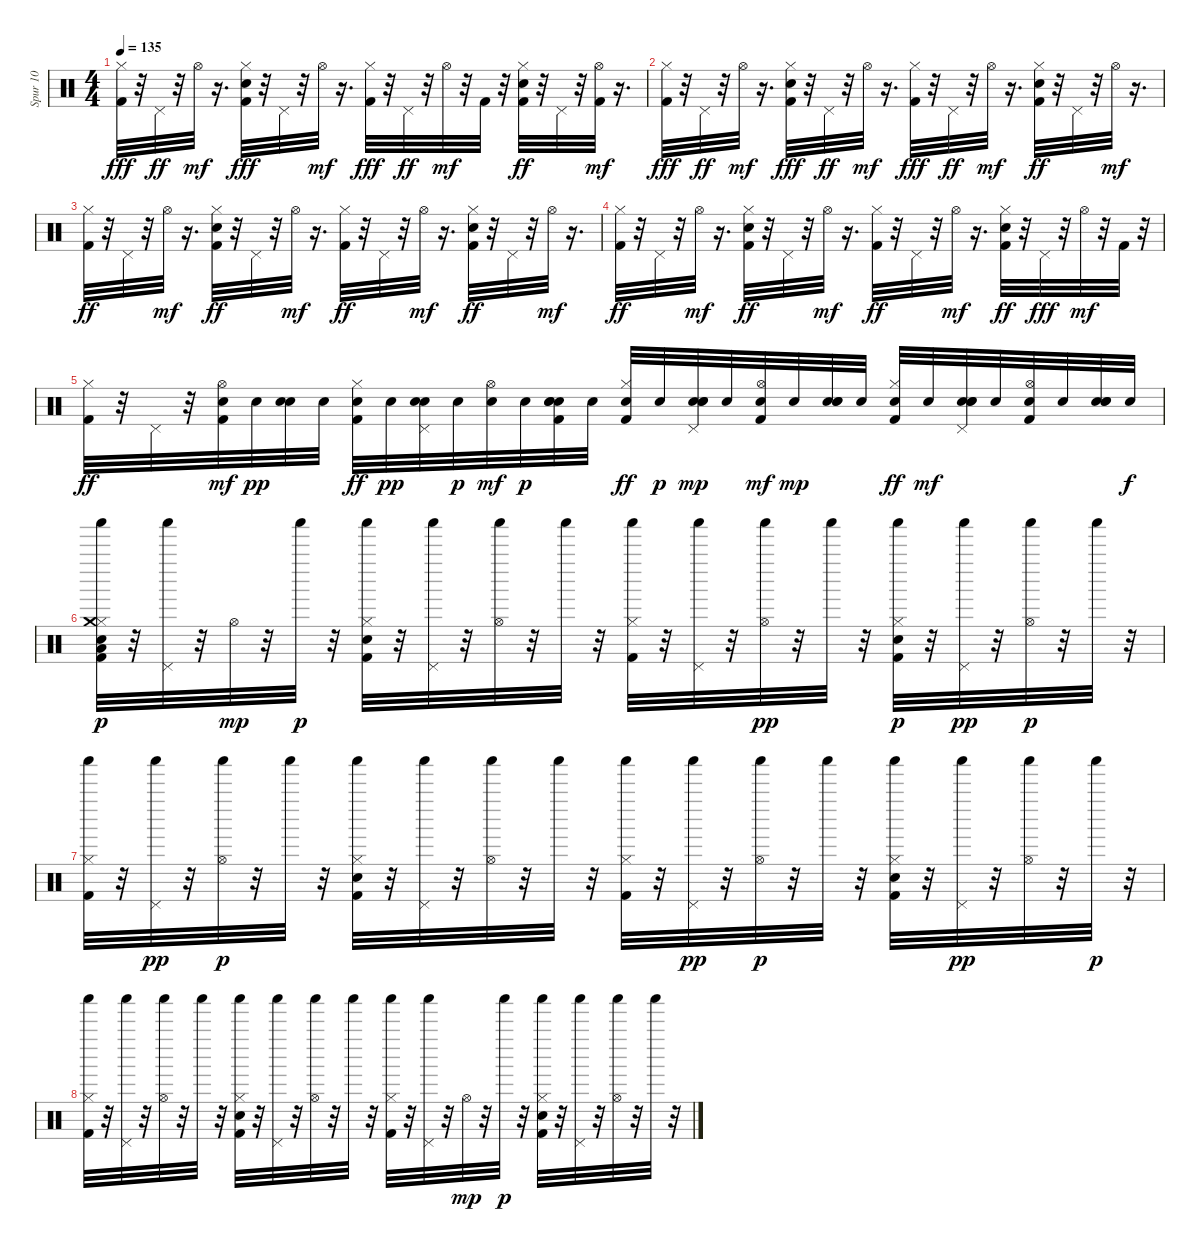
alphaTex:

\track ("Spur 10" "Spur 10") {instrument percussion}
\staff {score}
\articulation defaults
\ts (4 4)
\tempo 135
\clef neutral
\ks c
("Kick (hit) 2" "Hi-Hat (closed)").32{dy fff} r.32 "Pedal Hi-Hat (hit)".32{dy ff} r.32 "Hi-Hat (open)".32{dy mf} r.16{d} ("Kick (hit) 2" "Snare (hit) 2" "Hi-Hat (closed)").32{dy fff} r.32 "Pedal Hi-Hat (hit)".32 r.32 "Hi-Hat (open)".32{dy mf} r.16{d} ("Kick (hit) 2" "Hi-Hat (closed)").32{dy fff} r.32 "Pedal Hi-Hat (hit)".32{dy ff} r.32 "Hi-Hat (open)".32{dy mf} r.32 "Kick (hit) 2".32 r.32 ("Kick (hit) 2" "Snare (hit) 2" "Hi-Hat (closed)").32{dy ff} r.32 "Pedal Hi-Hat (hit)".32 r.32 ("Kick (hit) 2" "Hi-Hat (open)").32{dy mf} r.16{d} |
("Kick (hit) 2" "Hi-Hat (closed)").32{dy fff} r.32 "Pedal Hi-Hat (hit)".32{dy ff} r.32 "Hi-Hat (open)".32{dy mf} r.16{d} ("Kick (hit) 2" "Snare (hit) 2" "Hi-Hat (closed)").32{dy fff} r.32 "Pedal Hi-Hat (hit)".32{dy ff} r.32 "Hi-Hat (open)".32{dy mf} r.16{d} ("Kick (hit) 2" "Hi-Hat (closed)").32{dy fff} r.32 "Pedal Hi-Hat (hit)".32{dy ff} r.32 "Hi-Hat (open)".32{dy mf} r.16{d} ("Kick (hit) 2" "Snare (hit) 2" "Hi-Hat (closed)").32{dy ff} r.32 "Pedal Hi-Hat (hit)".32 r.32 "Hi-Hat (open)".32{dy mf} r.16{d} |
("Kick (hit) 2" "Hi-Hat (closed)").32{dy ff} r.32 "Pedal Hi-Hat (hit)".32 r.32 "Hi-Hat (open)".32{dy mf} r.16{d} ("Kick (hit) 2" "Snare (hit) 2" "Hi-Hat (closed)").32{dy ff} r.32 "Pedal Hi-Hat (hit)".32 r.32 "Hi-Hat (open)".32{dy mf} r.16{d} ("Kick (hit) 2" "Hi-Hat (closed)").32{dy ff} r.32 "Pedal Hi-Hat (hit)".32 r.32 "Hi-Hat (open)".32{dy mf} r.16{d} ("Kick (hit) 2" "Snare (hit) 2" "Hi-Hat (closed)").32{dy ff} r.32 "Pedal Hi-Hat (hit)".32 r.32 "Hi-Hat (open)".32{dy mf} r.16{d} |
("Kick (hit) 2" "Hi-Hat (closed)").32{dy ff} r.32 "Pedal Hi-Hat (hit)".32 r.32 "Hi-Hat (open)".32{dy mf} r.16{d} ("Kick (hit) 2" "Snare (hit) 2" "Hi-Hat (closed)").32{dy ff} r.32 "Pedal Hi-Hat (hit)".32 r.32 "Hi-Hat (open)".32{dy mf} r.16{d} ("Kick (hit) 2" "Hi-Hat (closed)").32{dy ff} r.32 "Pedal Hi-Hat (hit)".32 r.32 "Hi-Hat (open)".32{dy mf} r.16{d} ("Kick (hit) 2" "Snare (hit) 2" "Hi-Hat (closed)").32{dy ff} r.32 "Pedal Hi-Hat (hit)".32{dy fff} r.32 "Hi-Hat (open)".32{dy mf} r.32 "Kick (hit) 2".32 r.32 |
("Kick (hit) 2" "Hi-Hat (closed)").32{dy ff} r.32 "Pedal Hi-Hat (hit)".32 r.32 ("Kick (hit) 2" "Snare (hit) 2" "Hi-Hat (open)").32{dy mf} "Snare (hit) 2".32{dy pp} ("Snare (hit) 2" "Snare (hit) 2").32 "Snare (hit) 2".32 ("Kick (hit) 2" "Snare (hit) 2" "Hi-Hat (closed)").32{dy ff} "Snare (hit) 2".32{dy pp} ("Snare (hit) 2" "Pedal Hi-Hat (hit)" "Snare (hit) 2").32 "Snare (hit) 2".32{dy p} ("Snare (hit) 2" "Hi-Hat (open)").32{dy mf} "Snare (hit) 2".32{dy p} ("Snare (hit) 2" "Kick (hit) 2" "Snare (hit) 2" "Snare (hit) 2").32 "Snare (hit) 2".32 ("Kick (hit) 2" "Snare (hit) 2" "Hi-Hat (closed)").32{dy ff} "Snare (hit) 2".32{dy p} ("Snare (hit) 2" "Snare (hit) 2" "Pedal Hi-Hat (hit)" "Snare (hit) 2").32{dy mp} "Snare (hit) 2".32 ("Kick (hit) 2" "Snare (hit) 2" "Hi-Hat (open)").32{dy mf} "Snare (hit) 2".32{dy mp} ("Snare (hit) 2" "Snare (hit) 2" "Snare (hit) 2").32 "Snare (hit) 2".32 ("Kick (hit) 2" "Snare (hit) 2" "Hi-Hat (closed)").32{dy ff} "Snare (hit) 2".32{dy mf} ("Snare (hit) 2" "Snare (hit) 2" "Pedal Hi-Hat (hit)" "Snare (hit) 2").32 "Snare (hit) 2".32 ("Kick (hit) 2" "Snare (hit) 2" "Hi-Hat (open)").32 "Snare (hit) 2".32 ("Snare (hit) 2" "Snare (hit) 2" "Snare (hit) 2").32 "Snare (hit) 2".32{dy f} |
("Kick (hit) 2" "Snare (hit) 2" "Hi-Hat (closed)" "Low Tom (hit)" "Crash medium (hit)" "Shaker (hit)").32{dy p} r.32 ("Pedal Hi-Hat (hit)" "Shaker (hit)").32 r.32 "Hi-Hat (open)".32{dy mp} r.32 "Shaker (hit)".32{dy p} r.32 ("Kick (hit) 2" "Snare (hit) 2" "Hi-Hat (closed)" "Shaker (hit)").32 r.32 ("Pedal Hi-Hat (hit)" "Shaker (hit)").32 r.32 ("Hi-Hat (open)" "Shaker (hit)").32 r.32 "Shaker (hit)".32 r.32 ("Kick (hit) 2" "Hi-Hat (closed)" "Shaker (hit)").32 r.32 ("Pedal Hi-Hat (hit)" "Shaker (hit)").32 r.32 ("Hi-Hat (open)" "Shaker (hit)").32{dy pp} r.32 "Shaker (hit)".32 r.32 ("Kick (hit) 2" "Snare (hit) 2" "Hi-Hat (closed)" "Shaker (hit)").32{dy p} r.32 ("Pedal Hi-Hat (hit)" "Shaker (hit)").32{dy pp} r.32 ("Hi-Hat (open)" "Shaker (hit)").32{dy p} r.32 "Shaker (hit)".32 r.32 |
("Kick (hit) 2" "Hi-Hat (closed)" "Shaker (hit)").32 r.32 ("Pedal Hi-Hat (hit)" "Shaker (hit)").32{dy pp} r.32 ("Hi-Hat (open)" "Shaker (hit)").32{dy p} r.32 "Shaker (hit)".32 r.32 ("Kick (hit) 2" "Snare (hit) 2" "Hi-Hat (closed)" "Shaker (hit)").32 r.32 ("Pedal Hi-Hat (hit)" "Shaker (hit)").32 r.32 ("Hi-Hat (open)" "Shaker (hit)").32 r.32 "Shaker (hit)".32 r.32 ("Kick (hit) 2" "Hi-Hat (closed)" "Shaker (hit)").32 r.32 ("Pedal Hi-Hat (hit)" "Shaker (hit)").32{dy pp} r.32 ("Hi-Hat (open)" "Shaker (hit)").32{dy p} r.32 "Shaker (hit)".32 r.32 ("Kick (hit) 2" "Snare (hit) 2" "Hi-Hat (closed)" "Shaker (hit)").32 r.32 ("Pedal Hi-Hat (hit)" "Shaker (hit)").32{dy pp} r.32 ("Hi-Hat (open)" "Shaker (hit)").32 r.32 "Shaker (hit)".32{dy p} r.32 |
("Kick (hit) 2" "Hi-Hat (closed)" "Shaker (hit)").32 r.32 ("Pedal Hi-Hat (hit)" "Shaker (hit)").32 r.32 ("Hi-Hat (open)" "Shaker (hit)").32 r.32 "Shaker (hit)".32 r.32 ("Kick (hit) 2" "Snare (hit) 2" "Hi-Hat (closed)" "Shaker (hit)").32 r.32 ("Pedal Hi-Hat (hit)" "Shaker (hit)").32 r.32 ("Hi-Hat (open)" "Shaker (hit)").32 r.32 "Shaker (hit)".32 r.32 ("Kick (hit) 2" "Hi-Hat (closed)" "Shaker (hit)").32 r.32 ("Pedal Hi-Hat (hit)" "Shaker (hit)").32 r.32 "Hi-Hat (open)".32{dy mp} r.32 "Shaker (hit)".32{dy p} r.32 ("Kick (hit) 2" "Snare (hit) 2" "Hi-Hat (closed)" "Shaker (hit)").32 r.32 ("Pedal Hi-Hat (hit)" "Shaker (hit)").32 r.32 ("Hi-Hat (open)" "Shaker (hit)").32 r.32 "Shaker (hit)".32 r.32
